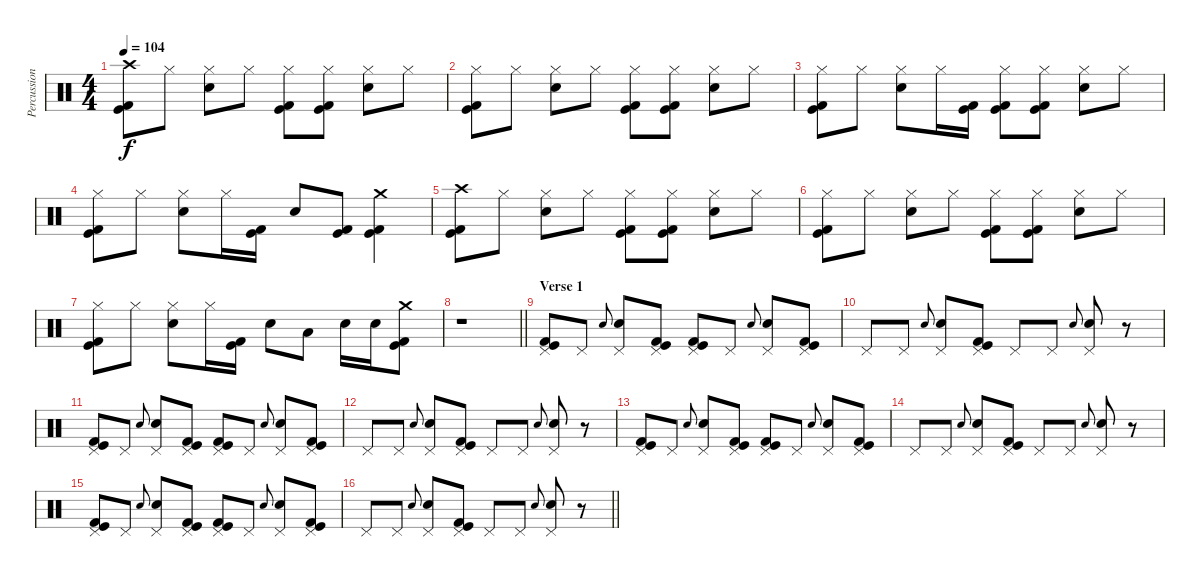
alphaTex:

\track ("Percussion" "Percussion") {instrument percussion}
\staff {score}
\articulation defaults
\ts (4 4)
\section ("" "")
\tempo 104
\clef neutral
\ks c
("Crash high (hit)" "Kick (hit)" "Kick (hit) 2").8{dy f} "Hi-Hat (closed)".8 ("Hi-Hat (closed)" "Electric Snare (hit)").8 "Hi-Hat (closed)".8 ("Hi-Hat (closed)" "Kick (hit)" "Kick (hit) 2").8 ("Hi-Hat (closed)" "Kick (hit)" "Kick (hit) 2").8 ("Hi-Hat (closed)" "Electric Snare (hit)").8 "Hi-Hat (closed)".8 |
("Hi-Hat (closed)" "Kick (hit)" "Kick (hit) 2").8 "Hi-Hat (closed)".8 ("Hi-Hat (closed)" "Electric Snare (hit)").8 "Hi-Hat (closed)".8 ("Hi-Hat (closed)" "Kick (hit)" "Kick (hit) 2").8 ("Hi-Hat (closed)" "Kick (hit)" "Kick (hit) 2").8 ("Hi-Hat (closed)" "Electric Snare (hit)").8 "Hi-Hat (closed)".8 |
("Hi-Hat (closed)" "Kick (hit)" "Kick (hit) 2").8 "Hi-Hat (closed)".8 ("Hi-Hat (closed)" "Electric Snare (hit)").8 "Hi-Hat (closed)".16 ("Kick (hit)" "Kick (hit) 2").16 ("Hi-Hat (closed)" "Kick (hit)" "Kick (hit) 2").8 ("Hi-Hat (closed)" "Kick (hit)" "Kick (hit) 2").8 ("Hi-Hat (closed)" "Electric Snare (hit)").8 "Hi-Hat (closed)".8 |
("Hi-Hat (closed)" "Kick (hit)" "Kick (hit) 2").8 "Hi-Hat (closed)".8 ("Hi-Hat (closed)" "Electric Snare (hit)").8 "Hi-Hat (closed)".16 ("Kick (hit)" "Kick (hit) 2").16 "Electric Snare (hit)".8 ("Kick (hit)" "Kick (hit) 2").8 ("Crash medium (hit)" "Kick (hit)" "Kick (hit) 2").4 |
("Crash high (hit)" "Kick (hit)" "Kick (hit) 2").8 "Hi-Hat (closed)".8 ("Hi-Hat (closed)" "Electric Snare (hit)").8 "Hi-Hat (closed)".8 ("Hi-Hat (closed)" "Kick (hit)" "Kick (hit) 2").8 ("Hi-Hat (closed)" "Kick (hit)" "Kick (hit) 2").8 ("Hi-Hat (closed)" "Electric Snare (hit)").8 "Hi-Hat (closed)".8 |
("Hi-Hat (closed)" "Kick (hit)" "Kick (hit) 2").8 "Hi-Hat (closed)".8 ("Hi-Hat (closed)" "Electric Snare (hit)").8 "Hi-Hat (closed)".8 ("Hi-Hat (closed)" "Kick (hit)" "Kick (hit) 2").8 ("Hi-Hat (closed)" "Kick (hit)" "Kick (hit) 2").8 ("Hi-Hat (closed)" "Electric Snare (hit)").8 "Hi-Hat (closed)".8 |
("Hi-Hat (closed)" "Kick (hit)" "Kick (hit) 2").8 "Hi-Hat (closed)".8 ("Hi-Hat (closed)" "Electric Snare (hit)").8 "Hi-Hat (closed)".16 ("Kick (hit)" "Kick (hit) 2").16 "Electric Snare (hit)".8 "Low Tom (hit)".8 "Electric Snare (hit)".16 "Electric Snare (hit)".16 ("Crash medium (hit)" "Kick (hit)" "Kick (hit) 2").8 |
\barLineRight lightlight
r.1 |
\section ("" "Verse 1")
("Pedal Hi-Hat (hit)" "Kick (hit)" "Kick (hit) 2").8 "Pedal Hi-Hat (hit)".8 "Electric Snare (hit)".8{gr onbeat} ("Pedal Hi-Hat (hit)" "Electric Snare (hit)").8 ("Pedal Hi-Hat (hit)" "Kick (hit)" "Kick (hit) 2").8 ("Pedal Hi-Hat (hit)" "Kick (hit)" "Kick (hit) 2").8 "Pedal Hi-Hat (hit)".8 "Electric Snare (hit)".8{gr onbeat} ("Pedal Hi-Hat (hit)" "Electric Snare (hit)").8 ("Pedal Hi-Hat (hit)" "Kick (hit)" "Kick (hit) 2").8 |
"Pedal Hi-Hat (hit)".8 "Pedal Hi-Hat (hit)".8 "Electric Snare (hit)".8{gr onbeat} ("Pedal Hi-Hat (hit)" "Electric Snare (hit)").8 ("Pedal Hi-Hat (hit)" "Kick (hit)" "Kick (hit) 2").8 "Pedal Hi-Hat (hit)".8 "Pedal Hi-Hat (hit)".8 "Electric Snare (hit)".8{gr onbeat} ("Pedal Hi-Hat (hit)" "Electric Snare (hit)").8 r.8 |
("Pedal Hi-Hat (hit)" "Kick (hit)" "Kick (hit) 2").8 "Pedal Hi-Hat (hit)".8 "Electric Snare (hit)".8{gr onbeat} ("Pedal Hi-Hat (hit)" "Electric Snare (hit)").8 ("Pedal Hi-Hat (hit)" "Kick (hit)" "Kick (hit) 2").8 ("Pedal Hi-Hat (hit)" "Kick (hit)" "Kick (hit) 2").8 "Pedal Hi-Hat (hit)".8 "Electric Snare (hit)".8{gr onbeat} ("Pedal Hi-Hat (hit)" "Electric Snare (hit)").8 ("Pedal Hi-Hat (hit)" "Kick (hit)" "Kick (hit) 2").8 |
"Pedal Hi-Hat (hit)".8 "Pedal Hi-Hat (hit)".8 "Electric Snare (hit)".8{gr onbeat} ("Pedal Hi-Hat (hit)" "Electric Snare (hit)").8 ("Pedal Hi-Hat (hit)" "Kick (hit)" "Kick (hit) 2").8 "Pedal Hi-Hat (hit)".8 "Pedal Hi-Hat (hit)".8 "Electric Snare (hit)".8{gr onbeat} ("Pedal Hi-Hat (hit)" "Electric Snare (hit)").8 r.8 |
("Pedal Hi-Hat (hit)" "Kick (hit)" "Kick (hit) 2").8 "Pedal Hi-Hat (hit)".8 "Electric Snare (hit)".8{gr onbeat} ("Pedal Hi-Hat (hit)" "Electric Snare (hit)").8 ("Pedal Hi-Hat (hit)" "Kick (hit)" "Kick (hit) 2").8 ("Pedal Hi-Hat (hit)" "Kick (hit)" "Kick (hit) 2").8 "Pedal Hi-Hat (hit)".8 "Electric Snare (hit)".8{gr onbeat} ("Pedal Hi-Hat (hit)" "Electric Snare (hit)").8 ("Pedal Hi-Hat (hit)" "Kick (hit)" "Kick (hit) 2").8 |
"Pedal Hi-Hat (hit)".8 "Pedal Hi-Hat (hit)".8 "Electric Snare (hit)".8{gr onbeat} ("Pedal Hi-Hat (hit)" "Electric Snare (hit)").8 ("Pedal Hi-Hat (hit)" "Kick (hit)" "Kick (hit) 2").8 "Pedal Hi-Hat (hit)".8 "Pedal Hi-Hat (hit)".8 "Electric Snare (hit)".8{gr onbeat} ("Pedal Hi-Hat (hit)" "Electric Snare (hit)").8 r.8 |
("Pedal Hi-Hat (hit)" "Kick (hit)" "Kick (hit) 2").8 "Pedal Hi-Hat (hit)".8 "Electric Snare (hit)".8{gr onbeat} ("Pedal Hi-Hat (hit)" "Electric Snare (hit)").8 ("Pedal Hi-Hat (hit)" "Kick (hit)" "Kick (hit) 2").8 ("Pedal Hi-Hat (hit)" "Kick (hit)" "Kick (hit) 2").8 "Pedal Hi-Hat (hit)".8 "Electric Snare (hit)".8{gr onbeat} ("Pedal Hi-Hat (hit)" "Electric Snare (hit)").8 ("Pedal Hi-Hat (hit)" "Kick (hit)" "Kick (hit) 2").8 |
\barLineRight lightlight "Pedal Hi-Hat (hit)".8 "Pedal Hi-Hat (hit)".8 "Electric Snare (hit)".8{gr onbeat}
("Pedal Hi-Hat (hit)" "Electric Snare (hit)").8 ("Pedal Hi-Hat (hit)" "Kick (hit)" "Kick (hit) 2").8 "Pedal Hi-Hat (hit)".8 "Pedal Hi-Hat (hit)".8 "Electric Snare (hit)".8{gr onbeat} ("Pedal Hi-Hat (hit)" "Electric Snare (hit)").8 r.8
